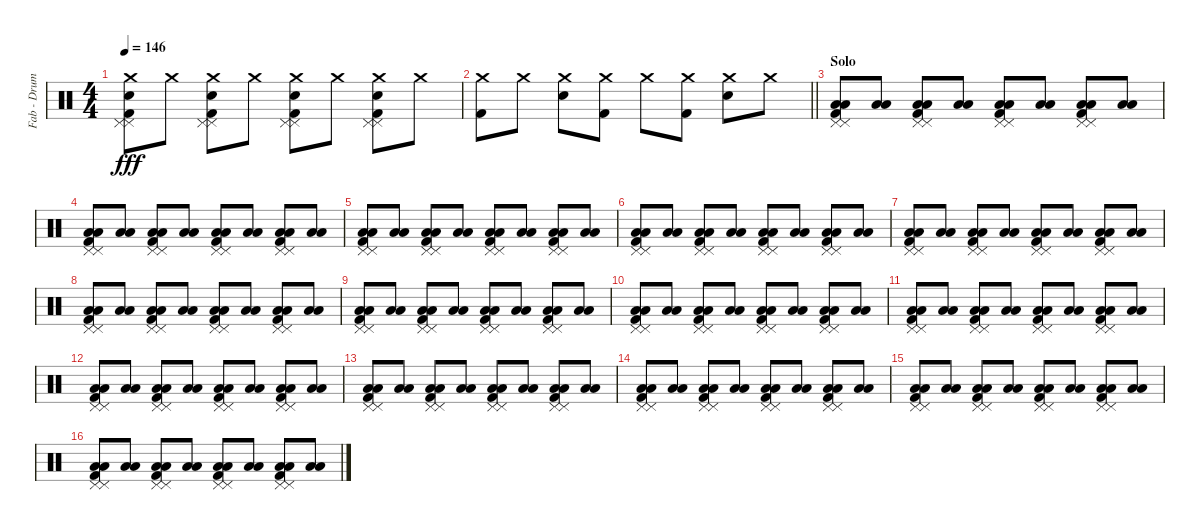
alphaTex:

\track ("Fab - Drums MIDI" "Fab - Drum") {instrument percussion}
\staff {score}
\articulation defaults
\ts (4 4)
\tempo 146
\clef neutral
\ks c
("Crash medium (hit)" "Pedal Hi-Hat (hit)" "Snare (hit) 2" "Kick (hit) 2" "Pedal Hi-Hat (hit)").8{dy fff} "Crash medium (hit)".8 ("Crash medium (hit)" "Pedal Hi-Hat (hit)" "Snare (hit) 2" "Kick (hit) 2" "Pedal Hi-Hat (hit)").8 "Crash medium (hit)".8 ("Crash medium (hit)" "Pedal Hi-Hat (hit)" "Snare (hit) 2" "Kick (hit) 2" "Pedal Hi-Hat (hit)").8 "Crash medium (hit)".8 ("Crash medium (hit)" "Pedal Hi-Hat (hit)" "Snare (hit) 2" "Kick (hit) 2" "Pedal Hi-Hat (hit)").8 "Crash medium (hit)".8 |
\barLineRight lightlight
("Crash medium (hit)" "Kick (hit) 2").8 "Crash medium (hit)".8 ("Crash medium (hit)" "Snare (hit) 2").8 ("Crash medium (hit)" "Kick (hit) 2").8 "Crash medium (hit)".8 ("Crash medium (hit)" "Kick (hit) 2").8 ("Crash medium (hit)" "Snare (hit) 2").8 "Crash medium (hit)".8 |
\section ("" "Solo")
("Low Floor Tom (hit)" "Low Floor Tom (hit)" "Kick (hit) 2" "Pedal Hi-Hat (hit)" "Pedal Hi-Hat (hit)").8 ("Low Floor Tom (hit)" "Low Floor Tom (hit)").8 ("Low Floor Tom (hit)" "Low Floor Tom (hit)" "Kick (hit) 2" "Pedal Hi-Hat (hit)" "Pedal Hi-Hat (hit)").8 ("Low Floor Tom (hit)" "Low Floor Tom (hit)").8 ("Low Floor Tom (hit)" "Low Floor Tom (hit)" "Kick (hit) 2" "Pedal Hi-Hat (hit)" "Pedal Hi-Hat (hit)").8 ("Low Floor Tom (hit)" "Low Floor Tom (hit)").8 ("Low Floor Tom (hit)" "Low Floor Tom (hit)" "Kick (hit) 2" "Pedal Hi-Hat (hit)" "Pedal Hi-Hat (hit)").8 ("Low Floor Tom (hit)" "Low Floor Tom (hit)").8 |
("Low Floor Tom (hit)" "Low Floor Tom (hit)" "Kick (hit) 2" "Pedal Hi-Hat (hit)" "Pedal Hi-Hat (hit)").8 ("Low Floor Tom (hit)" "Low Floor Tom (hit)").8 ("Low Floor Tom (hit)" "Low Floor Tom (hit)" "Kick (hit) 2" "Pedal Hi-Hat (hit)" "Pedal Hi-Hat (hit)").8 ("Low Floor Tom (hit)" "Low Floor Tom (hit)").8 ("Low Floor Tom (hit)" "Low Floor Tom (hit)" "Kick (hit) 2" "Pedal Hi-Hat (hit)" "Pedal Hi-Hat (hit)").8 ("Low Floor Tom (hit)" "Low Floor Tom (hit)").8 ("Low Floor Tom (hit)" "Low Floor Tom (hit)" "Kick (hit) 2" "Pedal Hi-Hat (hit)" "Pedal Hi-Hat (hit)").8 ("Low Floor Tom (hit)" "Low Floor Tom (hit)").8 |
("Low Floor Tom (hit)" "Low Floor Tom (hit)" "Kick (hit) 2" "Pedal Hi-Hat (hit)" "Pedal Hi-Hat (hit)").8 ("Low Floor Tom (hit)" "Low Floor Tom (hit)").8 ("Low Floor Tom (hit)" "Low Floor Tom (hit)" "Kick (hit) 2" "Pedal Hi-Hat (hit)" "Pedal Hi-Hat (hit)").8 ("Low Floor Tom (hit)" "Low Floor Tom (hit)").8 ("Low Floor Tom (hit)" "Low Floor Tom (hit)" "Kick (hit) 2" "Pedal Hi-Hat (hit)" "Pedal Hi-Hat (hit)").8 ("Low Floor Tom (hit)" "Low Floor Tom (hit)").8 ("Low Floor Tom (hit)" "Low Floor Tom (hit)" "Kick (hit) 2" "Pedal Hi-Hat (hit)" "Pedal Hi-Hat (hit)").8 ("Low Floor Tom (hit)" "Low Floor Tom (hit)").8 |
("Low Floor Tom (hit)" "Low Floor Tom (hit)" "Kick (hit) 2" "Pedal Hi-Hat (hit)" "Pedal Hi-Hat (hit)").8 ("Low Floor Tom (hit)" "Low Floor Tom (hit)").8 ("Low Floor Tom (hit)" "Low Floor Tom (hit)" "Kick (hit) 2" "Pedal Hi-Hat (hit)" "Pedal Hi-Hat (hit)").8 ("Low Floor Tom (hit)" "Low Floor Tom (hit)").8 ("Low Floor Tom (hit)" "Low Floor Tom (hit)" "Kick (hit) 2" "Pedal Hi-Hat (hit)" "Pedal Hi-Hat (hit)").8 ("Low Floor Tom (hit)" "Low Floor Tom (hit)").8 ("Low Floor Tom (hit)" "Low Floor Tom (hit)" "Kick (hit) 2" "Pedal Hi-Hat (hit)" "Pedal Hi-Hat (hit)").8 ("Low Floor Tom (hit)" "Low Floor Tom (hit)").8 |
("Low Floor Tom (hit)" "Low Floor Tom (hit)" "Kick (hit) 2" "Pedal Hi-Hat (hit)" "Pedal Hi-Hat (hit)").8 ("Low Floor Tom (hit)" "Low Floor Tom (hit)").8 ("Low Floor Tom (hit)" "Low Floor Tom (hit)" "Kick (hit) 2" "Pedal Hi-Hat (hit)" "Pedal Hi-Hat (hit)").8 ("Low Floor Tom (hit)" "Low Floor Tom (hit)").8 ("Low Floor Tom (hit)" "Low Floor Tom (hit)" "Kick (hit) 2" "Pedal Hi-Hat (hit)" "Pedal Hi-Hat (hit)").8 ("Low Floor Tom (hit)" "Low Floor Tom (hit)").8 ("Low Floor Tom (hit)" "Low Floor Tom (hit)" "Kick (hit) 2" "Pedal Hi-Hat (hit)" "Pedal Hi-Hat (hit)").8 ("Low Floor Tom (hit)" "Low Floor Tom (hit)").8 |
("Low Floor Tom (hit)" "Low Floor Tom (hit)" "Kick (hit) 2" "Pedal Hi-Hat (hit)" "Pedal Hi-Hat (hit)").8 ("Low Floor Tom (hit)" "Low Floor Tom (hit)").8 ("Low Floor Tom (hit)" "Low Floor Tom (hit)" "Kick (hit) 2" "Pedal Hi-Hat (hit)" "Pedal Hi-Hat (hit)").8 ("Low Floor Tom (hit)" "Low Floor Tom (hit)").8 ("Low Floor Tom (hit)" "Low Floor Tom (hit)" "Kick (hit) 2" "Pedal Hi-Hat (hit)" "Pedal Hi-Hat (hit)").8 ("Low Floor Tom (hit)" "Low Floor Tom (hit)").8 ("Low Floor Tom (hit)" "Low Floor Tom (hit)" "Kick (hit) 2" "Pedal Hi-Hat (hit)" "Pedal Hi-Hat (hit)").8 ("Low Floor Tom (hit)" "Low Floor Tom (hit)").8 |
("Low Floor Tom (hit)" "Low Floor Tom (hit)" "Kick (hit) 2" "Pedal Hi-Hat (hit)" "Pedal Hi-Hat (hit)").8 ("Low Floor Tom (hit)" "Low Floor Tom (hit)").8 ("Low Floor Tom (hit)" "Low Floor Tom (hit)" "Kick (hit) 2" "Pedal Hi-Hat (hit)" "Pedal Hi-Hat (hit)").8 ("Low Floor Tom (hit)" "Low Floor Tom (hit)").8 ("Low Floor Tom (hit)" "Low Floor Tom (hit)" "Kick (hit) 2" "Pedal Hi-Hat (hit)" "Pedal Hi-Hat (hit)").8 ("Low Floor Tom (hit)" "Low Floor Tom (hit)").8 ("Low Floor Tom (hit)" "Low Floor Tom (hit)" "Kick (hit) 2" "Pedal Hi-Hat (hit)" "Pedal Hi-Hat (hit)").8 ("Low Floor Tom (hit)" "Low Floor Tom (hit)").8 |
("Low Floor Tom (hit)" "Low Floor Tom (hit)" "Kick (hit) 2" "Pedal Hi-Hat (hit)" "Pedal Hi-Hat (hit)").8 ("Low Floor Tom (hit)" "Low Floor Tom (hit)").8 ("Low Floor Tom (hit)" "Low Floor Tom (hit)" "Kick (hit) 2" "Pedal Hi-Hat (hit)" "Pedal Hi-Hat (hit)").8 ("Low Floor Tom (hit)" "Low Floor Tom (hit)").8 ("Low Floor Tom (hit)" "Low Floor Tom (hit)" "Kick (hit) 2" "Pedal Hi-Hat (hit)" "Pedal Hi-Hat (hit)").8 ("Low Floor Tom (hit)" "Low Floor Tom (hit)").8 ("Low Floor Tom (hit)" "Low Floor Tom (hit)" "Kick (hit) 2" "Pedal Hi-Hat (hit)" "Pedal Hi-Hat (hit)").8 ("Low Floor Tom (hit)" "Low Floor Tom (hit)").8 |
("Low Floor Tom (hit)" "Low Floor Tom (hit)" "Kick (hit) 2" "Pedal Hi-Hat (hit)" "Pedal Hi-Hat (hit)").8 ("Low Floor Tom (hit)" "Low Floor Tom (hit)").8 ("Low Floor Tom (hit)" "Low Floor Tom (hit)" "Kick (hit) 2" "Pedal Hi-Hat (hit)" "Pedal Hi-Hat (hit)").8 ("Low Floor Tom (hit)" "Low Floor Tom (hit)").8 ("Low Floor Tom (hit)" "Low Floor Tom (hit)" "Kick (hit) 2" "Pedal Hi-Hat (hit)" "Pedal Hi-Hat (hit)").8 ("Low Floor Tom (hit)" "Low Floor Tom (hit)").8 ("Low Floor Tom (hit)" "Low Floor Tom (hit)" "Kick (hit) 2" "Pedal Hi-Hat (hit)" "Pedal Hi-Hat (hit)").8 ("Low Floor Tom (hit)" "Low Floor Tom (hit)").8 |
("Low Floor Tom (hit)" "Low Floor Tom (hit)" "Kick (hit) 2" "Pedal Hi-Hat (hit)" "Pedal Hi-Hat (hit)").8 ("Low Floor Tom (hit)" "Low Floor Tom (hit)").8 ("Low Floor Tom (hit)" "Low Floor Tom (hit)" "Kick (hit) 2" "Pedal Hi-Hat (hit)" "Pedal Hi-Hat (hit)").8 ("Low Floor Tom (hit)" "Low Floor Tom (hit)").8 ("Low Floor Tom (hit)" "Low Floor Tom (hit)" "Kick (hit) 2" "Pedal Hi-Hat (hit)" "Pedal Hi-Hat (hit)").8 ("Low Floor Tom (hit)" "Low Floor Tom (hit)").8 ("Low Floor Tom (hit)" "Low Floor Tom (hit)" "Kick (hit) 2" "Pedal Hi-Hat (hit)" "Pedal Hi-Hat (hit)").8 ("Low Floor Tom (hit)" "Low Floor Tom (hit)").8 |
("Low Floor Tom (hit)" "Low Floor Tom (hit)" "Kick (hit) 2" "Pedal Hi-Hat (hit)" "Pedal Hi-Hat (hit)").8 ("Low Floor Tom (hit)" "Low Floor Tom (hit)").8 ("Low Floor Tom (hit)" "Low Floor Tom (hit)" "Kick (hit) 2" "Pedal Hi-Hat (hit)" "Pedal Hi-Hat (hit)").8 ("Low Floor Tom (hit)" "Low Floor Tom (hit)").8 ("Low Floor Tom (hit)" "Low Floor Tom (hit)" "Kick (hit) 2" "Pedal Hi-Hat (hit)" "Pedal Hi-Hat (hit)").8 ("Low Floor Tom (hit)" "Low Floor Tom (hit)").8 ("Low Floor Tom (hit)" "Low Floor Tom (hit)" "Kick (hit) 2" "Pedal Hi-Hat (hit)" "Pedal Hi-Hat (hit)").8 ("Low Floor Tom (hit)" "Low Floor Tom (hit)").8 |
("Low Floor Tom (hit)" "Low Floor Tom (hit)" "Kick (hit) 2" "Pedal Hi-Hat (hit)" "Pedal Hi-Hat (hit)").8 ("Low Floor Tom (hit)" "Low Floor Tom (hit)").8 ("Low Floor Tom (hit)" "Low Floor Tom (hit)" "Kick (hit) 2" "Pedal Hi-Hat (hit)" "Pedal Hi-Hat (hit)").8 ("Low Floor Tom (hit)" "Low Floor Tom (hit)").8 ("Low Floor Tom (hit)" "Low Floor Tom (hit)" "Kick (hit) 2" "Pedal Hi-Hat (hit)" "Pedal Hi-Hat (hit)").8 ("Low Floor Tom (hit)" "Low Floor Tom (hit)").8 ("Low Floor Tom (hit)" "Low Floor Tom (hit)" "Kick (hit) 2" "Pedal Hi-Hat (hit)" "Pedal Hi-Hat (hit)").8 ("Low Floor Tom (hit)" "Low Floor Tom (hit)").8 |
("Low Floor Tom (hit)" "Low Floor Tom (hit)" "Kick (hit) 2" "Pedal Hi-Hat (hit)" "Pedal Hi-Hat (hit)").8 ("Low Floor Tom (hit)" "Low Floor Tom (hit)").8 ("Low Floor Tom (hit)" "Low Floor Tom (hit)" "Kick (hit) 2" "Pedal Hi-Hat (hit)" "Pedal Hi-Hat (hit)").8 ("Low Floor Tom (hit)" "Low Floor Tom (hit)").8 ("Low Floor Tom (hit)" "Low Floor Tom (hit)" "Kick (hit) 2" "Pedal Hi-Hat (hit)" "Pedal Hi-Hat (hit)").8 ("Low Floor Tom (hit)" "Low Floor Tom (hit)").8 ("Low Floor Tom (hit)" "Low Floor Tom (hit)" "Kick (hit) 2" "Pedal Hi-Hat (hit)" "Pedal Hi-Hat (hit)").8 ("Low Floor Tom (hit)" "Low Floor Tom (hit)").8 |
("Low Floor Tom (hit)" "Low Floor Tom (hit)" "Kick (hit) 2" "Pedal Hi-Hat (hit)" "Pedal Hi-Hat (hit)").8 ("Low Floor Tom (hit)" "Low Floor Tom (hit)").8 ("Low Floor Tom (hit)" "Low Floor Tom (hit)" "Kick (hit) 2" "Pedal Hi-Hat (hit)" "Pedal Hi-Hat (hit)").8 ("Low Floor Tom (hit)" "Low Floor Tom (hit)").8 ("Low Floor Tom (hit)" "Low Floor Tom (hit)" "Kick (hit) 2" "Pedal Hi-Hat (hit)" "Pedal Hi-Hat (hit)").8 ("Low Floor Tom (hit)" "Low Floor Tom (hit)").8 ("Low Floor Tom (hit)" "Low Floor Tom (hit)" "Kick (hit) 2" "Pedal Hi-Hat (hit)" "Pedal Hi-Hat (hit)").8 ("Low Floor Tom (hit)" "Low Floor Tom (hit)").8
